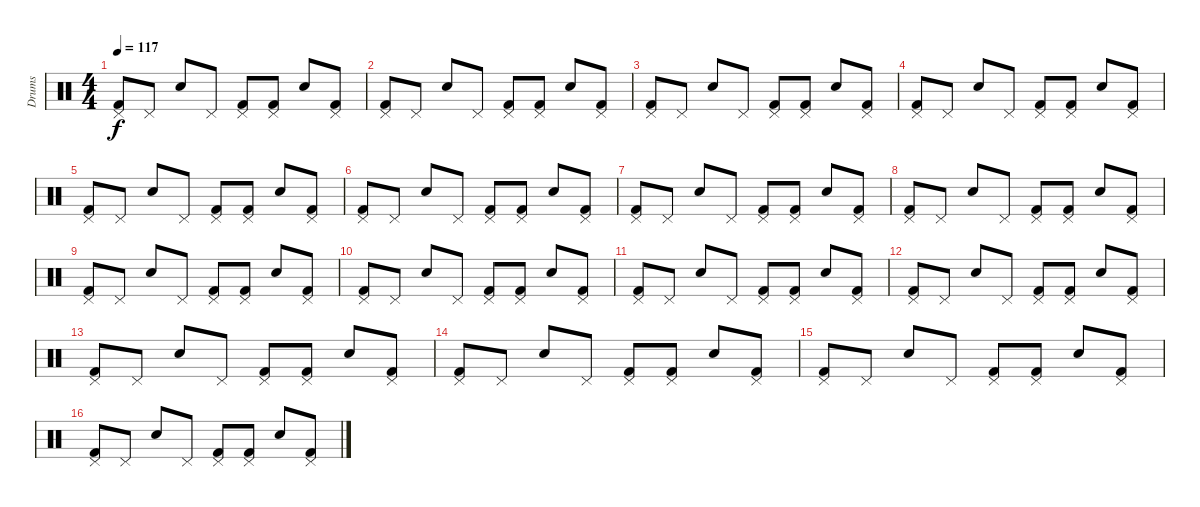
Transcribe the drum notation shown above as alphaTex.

\track ("Drums" "Drums") {instrument percussion}
\staff {score}
\articulation defaults
\ts (4 4)
\tempo 117
\clef neutral
\ks c
("Pedal Hi-Hat (hit)" "Kick (hit) 2").8{dy f} "Pedal Hi-Hat (hit)".8 "Snare (hit) 2".8 "Pedal Hi-Hat (hit)".8 ("Pedal Hi-Hat (hit)" "Kick (hit) 2").8 ("Pedal Hi-Hat (hit)" "Kick (hit) 2").8 "Snare (hit) 2".8 ("Pedal Hi-Hat (hit)" "Kick (hit) 2").8 |
("Pedal Hi-Hat (hit)" "Kick (hit) 2").8 "Pedal Hi-Hat (hit)".8 "Snare (hit) 2".8 "Pedal Hi-Hat (hit)".8 ("Pedal Hi-Hat (hit)" "Kick (hit) 2").8 ("Pedal Hi-Hat (hit)" "Kick (hit) 2").8 "Snare (hit) 2".8 ("Pedal Hi-Hat (hit)" "Kick (hit) 2").8 |
("Pedal Hi-Hat (hit)" "Kick (hit) 2").8 "Pedal Hi-Hat (hit)".8 "Snare (hit) 2".8 "Pedal Hi-Hat (hit)".8 ("Pedal Hi-Hat (hit)" "Kick (hit) 2").8 ("Pedal Hi-Hat (hit)" "Kick (hit) 2").8 "Snare (hit) 2".8 ("Pedal Hi-Hat (hit)" "Kick (hit) 2").8 |
("Pedal Hi-Hat (hit)" "Kick (hit) 2").8 "Pedal Hi-Hat (hit)".8 "Snare (hit) 2".8 "Pedal Hi-Hat (hit)".8 ("Pedal Hi-Hat (hit)" "Kick (hit) 2").8 ("Pedal Hi-Hat (hit)" "Kick (hit) 2").8 "Snare (hit) 2".8 ("Pedal Hi-Hat (hit)" "Kick (hit) 2").8 |
("Pedal Hi-Hat (hit)" "Kick (hit) 2").8 "Pedal Hi-Hat (hit)".8 "Snare (hit) 2".8 "Pedal Hi-Hat (hit)".8 ("Pedal Hi-Hat (hit)" "Kick (hit) 2").8 ("Pedal Hi-Hat (hit)" "Kick (hit) 2").8 "Snare (hit) 2".8 ("Pedal Hi-Hat (hit)" "Kick (hit) 2").8 |
("Pedal Hi-Hat (hit)" "Kick (hit) 2").8 "Pedal Hi-Hat (hit)".8 "Snare (hit) 2".8 "Pedal Hi-Hat (hit)".8 ("Pedal Hi-Hat (hit)" "Kick (hit) 2").8 ("Pedal Hi-Hat (hit)" "Kick (hit) 2").8 "Snare (hit) 2".8 ("Pedal Hi-Hat (hit)" "Kick (hit) 2").8 |
("Pedal Hi-Hat (hit)" "Kick (hit) 2").8 "Pedal Hi-Hat (hit)".8 "Snare (hit) 2".8 "Pedal Hi-Hat (hit)".8 ("Pedal Hi-Hat (hit)" "Kick (hit) 2").8 ("Pedal Hi-Hat (hit)" "Kick (hit) 2").8 "Snare (hit) 2".8 ("Pedal Hi-Hat (hit)" "Kick (hit) 2").8 |
("Pedal Hi-Hat (hit)" "Kick (hit) 2").8 "Pedal Hi-Hat (hit)".8 "Snare (hit) 2".8 "Pedal Hi-Hat (hit)".8 ("Pedal Hi-Hat (hit)" "Kick (hit) 2").8 ("Pedal Hi-Hat (hit)" "Kick (hit) 2").8 "Snare (hit) 2".8 ("Pedal Hi-Hat (hit)" "Kick (hit) 2").8 |
("Pedal Hi-Hat (hit)" "Kick (hit) 2").8 "Pedal Hi-Hat (hit)".8 "Snare (hit) 2".8 "Pedal Hi-Hat (hit)".8 ("Pedal Hi-Hat (hit)" "Kick (hit) 2").8 ("Pedal Hi-Hat (hit)" "Kick (hit) 2").8 "Snare (hit) 2".8 ("Pedal Hi-Hat (hit)" "Kick (hit) 2").8 |
("Pedal Hi-Hat (hit)" "Kick (hit) 2").8 "Pedal Hi-Hat (hit)".8 "Snare (hit) 2".8 "Pedal Hi-Hat (hit)".8 ("Pedal Hi-Hat (hit)" "Kick (hit) 2").8 ("Pedal Hi-Hat (hit)" "Kick (hit) 2").8 "Snare (hit) 2".8 ("Pedal Hi-Hat (hit)" "Kick (hit) 2").8 |
("Pedal Hi-Hat (hit)" "Kick (hit) 2").8 "Pedal Hi-Hat (hit)".8 "Snare (hit) 2".8 "Pedal Hi-Hat (hit)".8 ("Pedal Hi-Hat (hit)" "Kick (hit) 2").8 ("Pedal Hi-Hat (hit)" "Kick (hit) 2").8 "Snare (hit) 2".8 ("Pedal Hi-Hat (hit)" "Kick (hit) 2").8 |
("Pedal Hi-Hat (hit)" "Kick (hit) 2").8 "Pedal Hi-Hat (hit)".8 "Snare (hit) 2".8 "Pedal Hi-Hat (hit)".8 ("Pedal Hi-Hat (hit)" "Kick (hit) 2").8 ("Pedal Hi-Hat (hit)" "Kick (hit) 2").8 "Snare (hit) 2".8 ("Pedal Hi-Hat (hit)" "Kick (hit) 2").8 |
("Pedal Hi-Hat (hit)" "Kick (hit) 2").8 "Pedal Hi-Hat (hit)".8 "Snare (hit) 2".8 "Pedal Hi-Hat (hit)".8 ("Pedal Hi-Hat (hit)" "Kick (hit) 2").8 ("Pedal Hi-Hat (hit)" "Kick (hit) 2").8 "Snare (hit) 2".8 ("Pedal Hi-Hat (hit)" "Kick (hit) 2").8 |
("Pedal Hi-Hat (hit)" "Kick (hit) 2").8 "Pedal Hi-Hat (hit)".8 "Snare (hit) 2".8 "Pedal Hi-Hat (hit)".8 ("Pedal Hi-Hat (hit)" "Kick (hit) 2").8 ("Pedal Hi-Hat (hit)" "Kick (hit) 2").8 "Snare (hit) 2".8 ("Pedal Hi-Hat (hit)" "Kick (hit) 2").8 |
("Pedal Hi-Hat (hit)" "Kick (hit) 2").8 "Pedal Hi-Hat (hit)".8 "Snare (hit) 2".8 "Pedal Hi-Hat (hit)".8 ("Pedal Hi-Hat (hit)" "Kick (hit) 2").8 ("Pedal Hi-Hat (hit)" "Kick (hit) 2").8 "Snare (hit) 2".8 ("Pedal Hi-Hat (hit)" "Kick (hit) 2").8 |
("Pedal Hi-Hat (hit)" "Kick (hit) 2").8 "Pedal Hi-Hat (hit)".8 "Snare (hit) 2".8 "Pedal Hi-Hat (hit)".8 ("Pedal Hi-Hat (hit)" "Kick (hit) 2").8 ("Pedal Hi-Hat (hit)" "Kick (hit) 2").8 "Snare (hit) 2".8 ("Pedal Hi-Hat (hit)" "Kick (hit) 2").8
